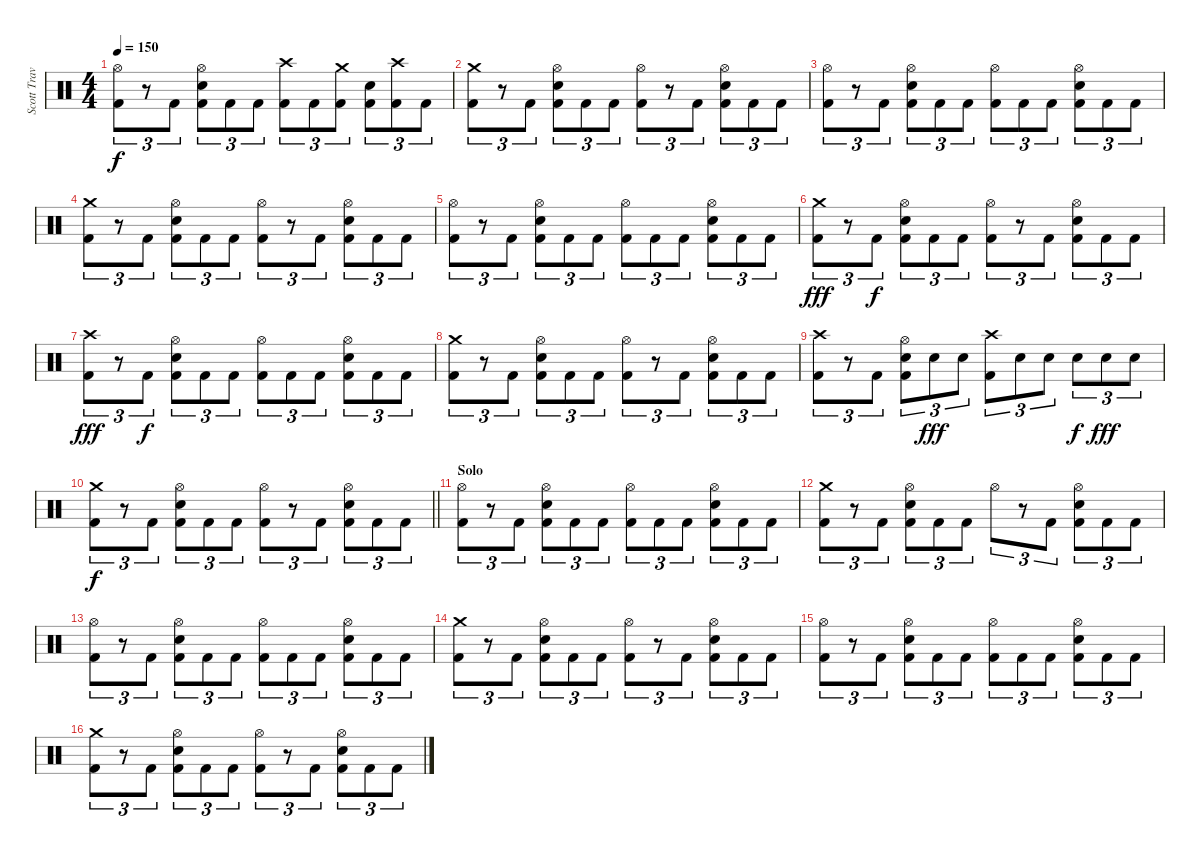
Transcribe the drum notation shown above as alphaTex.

\track ("Scott Travis" "Scott Trav") {instrument percussion}
\staff {score}
\articulation defaults
\ts (4 4)
\tempo 150
\clef neutral
\ks c
("Hi-Hat (open)" "Kick (hit) 2").8{tu (3 2) dy f} r.8{tu (3 2)} "Kick (hit) 2".8{tu (3 2)} ("Hi-Hat (open)" "Snare (hit) 2" "Kick (hit) 2").8{tu (3 2)} "Kick (hit) 2".8{tu (3 2)} "Kick (hit) 2".8{tu (3 2)} ("Crash high (hit)" "Kick (hit) 2").8{tu (3 2)} "Kick (hit) 2".8{tu (3 2)} ("Crash medium (hit)" "Kick (hit) 2").8{tu (3 2)} ("Snare (hit) 2" "Kick (hit) 2").8{tu (3 2)} ("Crash high (hit)" "Kick (hit) 2").8{tu (3 2)} "Kick (hit) 2".8{tu (3 2)} |
("Crash medium (hit)" "Kick (hit) 2").8{tu (3 2)} r.8{tu (3 2)} "Kick (hit) 2".8{tu (3 2)} ("Hi-Hat (open)" "Snare (hit) 2" "Kick (hit) 2").8{tu (3 2)} "Kick (hit) 2".8{tu (3 2)} "Kick (hit) 2".8{tu (3 2)} ("Hi-Hat (open)" "Kick (hit) 2").8{tu (3 2)} r.8{tu (3 2)} "Kick (hit) 2".8{tu (3 2)} ("Hi-Hat (open)" "Snare (hit) 2" "Kick (hit) 2").8{tu (3 2)} "Kick (hit) 2".8{tu (3 2)} "Kick (hit) 2".8{tu (3 2)} |
("Hi-Hat (open)" "Kick (hit) 2").8{tu (3 2)} r.8{tu (3 2)} "Kick (hit) 2".8{tu (3 2)} ("Hi-Hat (open)" "Snare (hit) 2" "Kick (hit) 2").8{tu (3 2)} "Kick (hit) 2".8{tu (3 2)} "Kick (hit) 2".8{tu (3 2)} ("Hi-Hat (open)" "Kick (hit) 2").8{tu (3 2)} "Kick (hit) 2".8{tu (3 2)} "Kick (hit) 2".8{tu (3 2)} ("Hi-Hat (open)" "Snare (hit) 2" "Kick (hit) 2").8{tu (3 2)} "Kick (hit) 2".8{tu (3 2)} "Kick (hit) 2".8{tu (3 2)} |
("Crash medium (hit)" "Kick (hit) 2").8{tu (3 2)} r.8{tu (3 2)} "Kick (hit) 2".8{tu (3 2)} ("Hi-Hat (open)" "Snare (hit) 2" "Kick (hit) 2").8{tu (3 2)} "Kick (hit) 2".8{tu (3 2)} "Kick (hit) 2".8{tu (3 2)} ("Hi-Hat (open)" "Kick (hit) 2").8{tu (3 2)} r.8{tu (3 2)} "Kick (hit) 2".8{tu (3 2)} ("Hi-Hat (open)" "Snare (hit) 2" "Kick (hit) 2").8{tu (3 2)} "Kick (hit) 2".8{tu (3 2)} "Kick (hit) 2".8{tu (3 2)} |
("Hi-Hat (open)" "Kick (hit) 2").8{tu (3 2)} r.8{tu (3 2)} "Kick (hit) 2".8{tu (3 2)} ("Hi-Hat (open)" "Snare (hit) 2" "Kick (hit) 2").8{tu (3 2)} "Kick (hit) 2".8{tu (3 2)} "Kick (hit) 2".8{tu (3 2)} ("Hi-Hat (open)" "Kick (hit) 2").8{tu (3 2)} "Kick (hit) 2".8{tu (3 2)} "Kick (hit) 2".8{tu (3 2)} ("Hi-Hat (open)" "Snare (hit) 2" "Kick (hit) 2").8{tu (3 2)} "Kick (hit) 2".8{tu (3 2)} "Kick (hit) 2".8{tu (3 2)} |
("Crash medium (hit)" "Kick (hit) 2").8{tu (3 2) dy fff} r.8{tu (3 2)} "Kick (hit) 2".8{tu (3 2) dy f} ("Hi-Hat (open)" "Snare (hit) 2" "Kick (hit) 2").8{tu (3 2)} "Kick (hit) 2".8{tu (3 2)} "Kick (hit) 2".8{tu (3 2)} ("Hi-Hat (open)" "Kick (hit) 2").8{tu (3 2)} r.8{tu (3 2)} "Kick (hit) 2".8{tu (3 2)} ("Hi-Hat (open)" "Snare (hit) 2" "Kick (hit) 2").8{tu (3 2)} "Kick (hit) 2".8{tu (3 2)} "Kick (hit) 2".8{tu (3 2)} |
("Crash high (hit)" "Kick (hit) 2").8{tu (3 2) dy fff} r.8{tu (3 2)} "Kick (hit) 2".8{tu (3 2) dy f} ("Hi-Hat (open)" "Snare (hit) 2" "Kick (hit) 2").8{tu (3 2)} "Kick (hit) 2".8{tu (3 2)} "Kick (hit) 2".8{tu (3 2)} ("Hi-Hat (open)" "Kick (hit) 2").8{tu (3 2)} "Kick (hit) 2".8{tu (3 2)} "Kick (hit) 2".8{tu (3 2)} ("Hi-Hat (open)" "Snare (hit) 2" "Kick (hit) 2").8{tu (3 2)} "Kick (hit) 2".8{tu (3 2)} "Kick (hit) 2".8{tu (3 2)} |
("Crash medium (hit)" "Kick (hit) 2").8{tu (3 2)} r.8{tu (3 2)} "Kick (hit) 2".8{tu (3 2)} ("Hi-Hat (open)" "Snare (hit) 2" "Kick (hit) 2").8{tu (3 2)} "Kick (hit) 2".8{tu (3 2)} "Kick (hit) 2".8{tu (3 2)} ("Hi-Hat (open)" "Kick (hit) 2").8{tu (3 2)} r.8{tu (3 2)} "Kick (hit) 2".8{tu (3 2)} ("Hi-Hat (open)" "Snare (hit) 2" "Kick (hit) 2").8{tu (3 2)} "Kick (hit) 2".8{tu (3 2)} "Kick (hit) 2".8{tu (3 2)} |
("Crash high (hit)" "Kick (hit) 2").8{tu (3 2)} r.8{tu (3 2)} "Kick (hit) 2".8{tu (3 2)} ("Hi-Hat (open)" "Snare (hit) 2" "Kick (hit) 2").8{tu (3 2)} "Snare (hit) 2".8{tu (3 2) dy fff} "Snare (hit) 2".8{tu (3 2)} ("Crash high (hit)" "Kick (hit) 2").8{tu (3 2)} "Snare (hit) 2".8{tu (3 2)} "Snare (hit) 2".8{tu (3 2)} "Snare (hit) 2".8{tu (3 2) dy f} "Snare (hit) 2".8{tu (3 2) dy fff} "Snare (hit) 2".8{tu (3 2)} |
\barLineRight lightlight
("Crash medium (hit)" "Kick (hit) 2").8{tu (3 2) dy f} r.8{tu (3 2)} "Kick (hit) 2".8{tu (3 2)} ("Hi-Hat (open)" "Snare (hit) 2" "Kick (hit) 2").8{tu (3 2)} "Kick (hit) 2".8{tu (3 2)} "Kick (hit) 2".8{tu (3 2)} ("Hi-Hat (open)" "Kick (hit) 2").8{tu (3 2)} r.8{tu (3 2)} "Kick (hit) 2".8{tu (3 2)} ("Hi-Hat (open)" "Snare (hit) 2" "Kick (hit) 2").8{tu (3 2)} "Kick (hit) 2".8{tu (3 2)} "Kick (hit) 2".8{tu (3 2)} |
\section ("" "Solo")
("Hi-Hat (open)" "Kick (hit) 2").8{tu (3 2)} r.8{tu (3 2)} "Kick (hit) 2".8{tu (3 2)} ("Hi-Hat (open)" "Snare (hit) 2" "Kick (hit) 2").8{tu (3 2)} "Kick (hit) 2".8{tu (3 2)} "Kick (hit) 2".8{tu (3 2)} ("Hi-Hat (open)" "Kick (hit) 2").8{tu (3 2)} "Kick (hit) 2".8{tu (3 2)} "Kick (hit) 2".8{tu (3 2)} ("Hi-Hat (open)" "Snare (hit) 2" "Kick (hit) 2").8{tu (3 2)} "Kick (hit) 2".8{tu (3 2)} "Kick (hit) 2".8{tu (3 2)} |
("Crash medium (hit)" "Kick (hit) 2").8{tu (3 2)} r.8{tu (3 2)} "Kick (hit) 2".8{tu (3 2)} ("Hi-Hat (open)" "Snare (hit) 2" "Kick (hit) 2").8{tu (3 2)} "Kick (hit) 2".8{tu (3 2)} "Kick (hit) 2".8{tu (3 2)} "Hi-Hat (open)".8{tu (3 2)} r.8{tu (3 2)} "Kick (hit) 2".8{tu (3 2)} ("Hi-Hat (open)" "Snare (hit) 2" "Kick (hit) 2").8{tu (3 2)} "Kick (hit) 2".8{tu (3 2)} "Kick (hit) 2".8{tu (3 2)} |
("Hi-Hat (open)" "Kick (hit) 2").8{tu (3 2)} r.8{tu (3 2)} "Kick (hit) 2".8{tu (3 2)} ("Hi-Hat (open)" "Snare (hit) 2" "Kick (hit) 2").8{tu (3 2)} "Kick (hit) 2".8{tu (3 2)} "Kick (hit) 2".8{tu (3 2)} ("Hi-Hat (open)" "Kick (hit) 2").8{tu (3 2)} "Kick (hit) 2".8{tu (3 2)} "Kick (hit) 2".8{tu (3 2)} ("Hi-Hat (open)" "Snare (hit) 2" "Kick (hit) 2").8{tu (3 2)} "Kick (hit) 2".8{tu (3 2)} "Kick (hit) 2".8{tu (3 2)} |
("Crash medium (hit)" "Kick (hit) 2").8{tu (3 2)} r.8{tu (3 2)} "Kick (hit) 2".8{tu (3 2)} ("Hi-Hat (open)" "Snare (hit) 2" "Kick (hit) 2").8{tu (3 2)} "Kick (hit) 2".8{tu (3 2)} "Kick (hit) 2".8{tu (3 2)} ("Hi-Hat (open)" "Kick (hit) 2").8{tu (3 2)} r.8{tu (3 2)} "Kick (hit) 2".8{tu (3 2)} ("Hi-Hat (open)" "Snare (hit) 2" "Kick (hit) 2").8{tu (3 2)} "Kick (hit) 2".8{tu (3 2)} "Kick (hit) 2".8{tu (3 2)} |
("Hi-Hat (open)" "Kick (hit) 2").8{tu (3 2)} r.8{tu (3 2)} "Kick (hit) 2".8{tu (3 2)} ("Hi-Hat (open)" "Snare (hit) 2" "Kick (hit) 2").8{tu (3 2)} "Kick (hit) 2".8{tu (3 2)} "Kick (hit) 2".8{tu (3 2)} ("Hi-Hat (open)" "Kick (hit) 2").8{tu (3 2)} "Kick (hit) 2".8{tu (3 2)} "Kick (hit) 2".8{tu (3 2)} ("Hi-Hat (open)" "Snare (hit) 2" "Kick (hit) 2").8{tu (3 2)} "Kick (hit) 2".8{tu (3 2)} "Kick (hit) 2".8{tu (3 2)} |
("Crash medium (hit)" "Kick (hit) 2").8{tu (3 2)} r.8{tu (3 2)} "Kick (hit) 2".8{tu (3 2)} ("Hi-Hat (open)" "Snare (hit) 2" "Kick (hit) 2").8{tu (3 2)} "Kick (hit) 2".8{tu (3 2)} "Kick (hit) 2".8{tu (3 2)} ("Hi-Hat (open)" "Kick (hit) 2").8{tu (3 2)} r.8{tu (3 2)} "Kick (hit) 2".8{tu (3 2)} ("Hi-Hat (open)" "Snare (hit) 2" "Kick (hit) 2").8{tu (3 2)} "Kick (hit) 2".8{tu (3 2)} "Kick (hit) 2".8{tu (3 2)}
